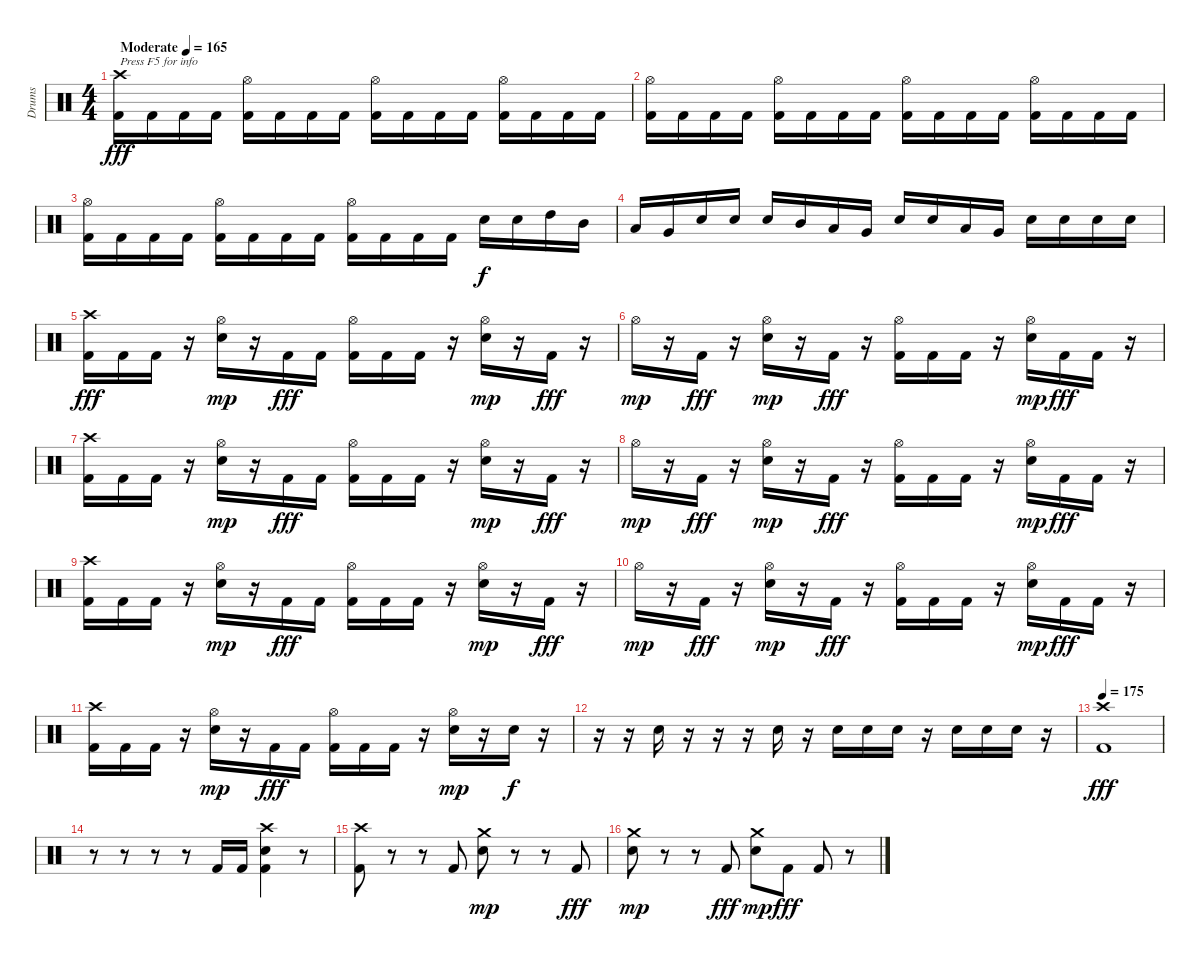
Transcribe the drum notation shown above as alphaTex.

\track ("Drums" "Drums") {instrument percussion}
\staff {score}
\articulation defaults
\ts (4 4)
\tempo (165 "Moderate")
\clef neutral
\ks c
("Crash high (hit)" "Kick (hit) 2").16{txt "Press F5 for info" dy fff} "Kick (hit) 2".16 "Kick (hit) 2".16 "Kick (hit) 2".16 ("Hi-Hat (open)" "Kick (hit) 2").16 "Kick (hit) 2".16 "Kick (hit) 2".16 "Kick (hit) 2".16 ("Hi-Hat (open)" "Kick (hit) 2").16 "Kick (hit) 2".16 "Kick (hit) 2".16 "Kick (hit) 2".16 ("Hi-Hat (open)" "Kick (hit) 2").16 "Kick (hit) 2".16 "Kick (hit) 2".16 "Kick (hit) 2".16 |
("Hi-Hat (open)" "Kick (hit) 2").16 "Kick (hit) 2".16 "Kick (hit) 2".16 "Kick (hit) 2".16 ("Hi-Hat (open)" "Kick (hit) 2").16 "Kick (hit) 2".16 "Kick (hit) 2".16 "Kick (hit) 2".16 ("Hi-Hat (open)" "Kick (hit) 2").16 "Kick (hit) 2".16 "Kick (hit) 2".16 "Kick (hit) 2".16 ("Hi-Hat (open)" "Kick (hit) 2").16 "Kick (hit) 2".16 "Kick (hit) 2".16 "Kick (hit) 2".16 |
("Hi-Hat (open)" "Kick (hit) 2").16 "Kick (hit) 2".16 "Kick (hit) 2".16 "Kick (hit) 2".16 ("Hi-Hat (open)" "Kick (hit) 2").16 "Kick (hit) 2".16 "Kick (hit) 2".16 "Kick (hit) 2".16 ("Hi-Hat (open)" "Kick (hit) 2").16 "Kick (hit) 2".16 "Kick (hit) 2".16 "Kick (hit) 2".16 "Snare (hit) 2".16{dy f} "Snare (hit) 2".16 "High Tom (hit)".16 "Mid Tom (hit)".16 |
"Low Tom (hit)".16 "Very Low Tom (hit)".16 "Snare (hit) 2".16 "Snare (hit) 2".16 "Snare (hit) 2".16 "Mid Tom (hit)".16 "Low Tom (hit)".16 "Very Low Tom (hit)".16 "Snare (hit) 2".16 "Snare (hit) 2".16 "Low Tom (hit)".16 "Very Low Tom (hit)".16 "Snare (hit) 2".16 "Snare (hit) 2".16 "Snare (hit) 2".16 "Snare (hit) 2".16 |
("Crash high (hit)" "Kick (hit) 2").16{dy fff} "Kick (hit) 2".16 "Kick (hit) 2".16 r.16 ("Hi-Hat (open)" "Snare (hit) 2").16{dy mp} r.16 "Kick (hit) 2".16{dy fff} "Kick (hit) 2".16 ("Hi-Hat (open)" "Kick (hit) 2").16 "Kick (hit) 2".16 "Kick (hit) 2".16 r.16 ("Hi-Hat (open)" "Snare (hit) 2").16{dy mp} r.16 "Kick (hit) 2".16{dy fff} r.16 |
"Hi-Hat (open)".16{dy mp} r.16 "Kick (hit) 2".16{dy fff} r.16 ("Hi-Hat (open)" "Snare (hit) 2").16{dy mp} r.16 "Kick (hit) 2".16{dy fff} r.16 ("Hi-Hat (open)" "Kick (hit) 2").16 "Kick (hit) 2".16 "Kick (hit) 2".16 r.16 ("Hi-Hat (open)" "Snare (hit) 2").16{dy mp} "Kick (hit) 2".16{dy fff} "Kick (hit) 2".16 r.16 |
("Crash high (hit)" "Kick (hit) 2").16 "Kick (hit) 2".16 "Kick (hit) 2".16 r.16 ("Hi-Hat (open)" "Snare (hit) 2").16{dy mp} r.16 "Kick (hit) 2".16{dy fff} "Kick (hit) 2".16 ("Hi-Hat (open)" "Kick (hit) 2").16 "Kick (hit) 2".16 "Kick (hit) 2".16 r.16 ("Hi-Hat (open)" "Snare (hit) 2").16{dy mp} r.16 "Kick (hit) 2".16{dy fff} r.16 |
"Hi-Hat (open)".16{dy mp} r.16 "Kick (hit) 2".16{dy fff} r.16 ("Hi-Hat (open)" "Snare (hit) 2").16{dy mp} r.16 "Kick (hit) 2".16{dy fff} r.16 ("Hi-Hat (open)" "Kick (hit) 2").16 "Kick (hit) 2".16 "Kick (hit) 2".16 r.16 ("Hi-Hat (open)" "Snare (hit) 2").16{dy mp} "Kick (hit) 2".16{dy fff} "Kick (hit) 2".16 r.16 |
("Crash high (hit)" "Kick (hit) 2").16 "Kick (hit) 2".16 "Kick (hit) 2".16 r.16 ("Hi-Hat (open)" "Snare (hit) 2").16{dy mp} r.16 "Kick (hit) 2".16{dy fff} "Kick (hit) 2".16 ("Hi-Hat (open)" "Kick (hit) 2").16 "Kick (hit) 2".16 "Kick (hit) 2".16 r.16 ("Hi-Hat (open)" "Snare (hit) 2").16{dy mp} r.16 "Kick (hit) 2".16{dy fff} r.16 |
"Hi-Hat (open)".16{dy mp} r.16 "Kick (hit) 2".16{dy fff} r.16 ("Hi-Hat (open)" "Snare (hit) 2").16{dy mp} r.16 "Kick (hit) 2".16{dy fff} r.16 ("Hi-Hat (open)" "Kick (hit) 2").16 "Kick (hit) 2".16 "Kick (hit) 2".16 r.16 ("Hi-Hat (open)" "Snare (hit) 2").16{dy mp} "Kick (hit) 2".16{dy fff} "Kick (hit) 2".16 r.16 |
("Crash high (hit)" "Kick (hit) 2").16 "Kick (hit) 2".16 "Kick (hit) 2".16 r.16 ("Hi-Hat (open)" "Snare (hit) 2").16{dy mp} r.16 "Kick (hit) 2".16{dy fff} "Kick (hit) 2".16 ("Hi-Hat (open)" "Kick (hit) 2").16 "Kick (hit) 2".16 "Kick (hit) 2".16 r.16 ("Hi-Hat (open)" "Snare (hit) 2").16{dy mp} r.16 "Snare (hit) 2".16{dy f} r.16 |
r.16 r.16 "Snare (hit) 2".16 r.16 r.16 r.16 "Snare (hit) 2".16 r.16 "Snare (hit) 2".16 "Snare (hit) 2".16 "Snare (hit) 2".16 r.16 "Snare (hit) 2".16 "Snare (hit) 2".16 "Snare (hit) 2".16 r.16 |
\tempo 175
("Crash high (hit)" "Kick (hit) 2").1{dy fff} |
r.8 r.8 r.8 r.8 "Kick (hit) 2".16 "Kick (hit) 2".16 ("Crash high (hit)" "Snare (hit) 2" "Kick (hit) 2").4 r.8 |
("Crash high (hit)" "Kick (hit) 2").8 r.8 r.8 "Kick (hit) 2".8 ("Crash medium (hit)" "Snare (hit) 2").8{dy mp} r.8 r.8 "Kick (hit) 2".8{dy fff} |
("Crash medium (hit)" "Snare (hit) 2").8{dy mp} r.8 r.8 "Kick (hit) 2".8{dy fff} ("Crash medium (hit)" "Snare (hit) 2").8{dy mp} "Kick (hit) 2".8{dy fff} "Kick (hit) 2".8 r.8
